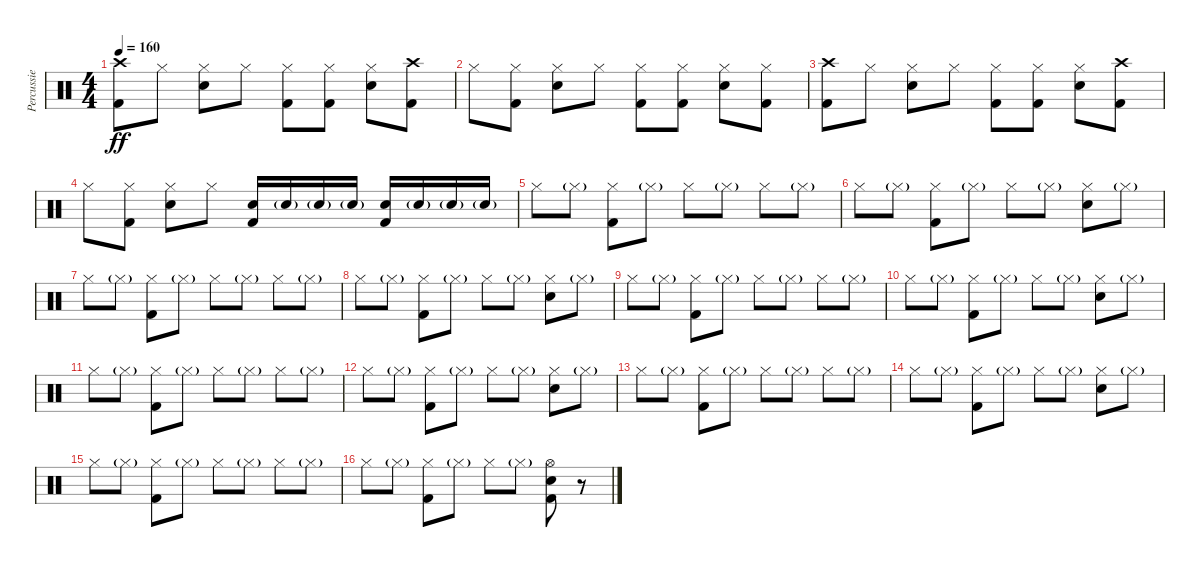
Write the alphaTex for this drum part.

\track ("Percussie" "Percussie") {instrument percussion}
\staff {score}
\articulation defaults
\ts (4 4)
\tempo 160
\clef neutral
\ks c
("Crash high (hit)" "Kick (hit) 2").8{dy ff} "Hi-Hat (closed)".8 ("Hi-Hat (closed)" "Snare (hit) 2").8 "Hi-Hat (closed)".8 ("Hi-Hat (closed)" "Kick (hit) 2").8 ("Hi-Hat (closed)" "Kick (hit) 2").8 ("Hi-Hat (closed)" "Snare (hit) 2").8 ("Crash high (hit)" "Kick (hit) 2").8 |
"Hi-Hat (closed)".8 ("Hi-Hat (closed)" "Kick (hit) 2").8 ("Hi-Hat (closed)" "Snare (hit) 2").8 "Hi-Hat (closed)".8 ("Hi-Hat (closed)" "Kick (hit) 2").8 ("Hi-Hat (closed)" "Kick (hit) 2").8 ("Hi-Hat (closed)" "Snare (hit) 2").8 ("Hi-Hat (closed)" "Kick (hit) 2").8 |
("Crash high (hit)" "Kick (hit) 2").8 "Hi-Hat (closed)".8 ("Hi-Hat (closed)" "Snare (hit) 2").8 "Hi-Hat (closed)".8 ("Hi-Hat (closed)" "Kick (hit) 2").8 ("Hi-Hat (closed)" "Kick (hit) 2").8 ("Hi-Hat (closed)" "Snare (hit) 2").8 ("Crash high (hit)" "Kick (hit) 2").8 |
"Hi-Hat (closed)".8 ("Hi-Hat (closed)" "Kick (hit) 2").8 ("Hi-Hat (closed)" "Snare (hit) 2").8 "Hi-Hat (closed)".8 ("Snare (hit) 2" "Kick (hit) 2").16 "Snare (hit) 2"{g}.16 "Snare (hit) 2"{g}.16 "Snare (hit) 2"{g}.16 ("Snare (hit) 2" "Kick (hit) 2").16 "Snare (hit) 2"{g}.16 "Snare (hit) 2"{g}.16 "Snare (hit) 2"{g}.16 |
"Hi-Hat (closed)".8 "Hi-Hat (closed)"{g}.8 ("Hi-Hat (closed)" "Kick (hit) 2").8 "Hi-Hat (closed)"{g}.8 "Hi-Hat (closed)".8 "Hi-Hat (closed)"{g}.8 "Hi-Hat (closed)".8 "Hi-Hat (closed)"{g}.8 |
"Hi-Hat (closed)".8 "Hi-Hat (closed)"{g}.8 ("Hi-Hat (closed)" "Kick (hit) 2").8 "Hi-Hat (closed)"{g}.8 "Hi-Hat (closed)".8 "Hi-Hat (closed)"{g}.8 ("Hi-Hat (closed)" "Snare (hit) 2").8 "Hi-Hat (closed)"{g}.8 |
"Hi-Hat (closed)".8 "Hi-Hat (closed)"{g}.8 ("Hi-Hat (closed)" "Kick (hit) 2").8 "Hi-Hat (closed)"{g}.8 "Hi-Hat (closed)".8 "Hi-Hat (closed)"{g}.8 "Hi-Hat (closed)".8 "Hi-Hat (closed)"{g}.8 |
"Hi-Hat (closed)".8 "Hi-Hat (closed)"{g}.8 ("Hi-Hat (closed)" "Kick (hit) 2").8 "Hi-Hat (closed)"{g}.8 "Hi-Hat (closed)".8 "Hi-Hat (closed)"{g}.8 ("Hi-Hat (closed)" "Snare (hit) 2").8 "Hi-Hat (closed)"{g}.8 |
"Hi-Hat (closed)".8 "Hi-Hat (closed)"{g}.8 ("Hi-Hat (closed)" "Kick (hit) 2").8 "Hi-Hat (closed)"{g}.8 "Hi-Hat (closed)".8 "Hi-Hat (closed)"{g}.8 "Hi-Hat (closed)".8 "Hi-Hat (closed)"{g}.8 |
"Hi-Hat (closed)".8 "Hi-Hat (closed)"{g}.8 ("Hi-Hat (closed)" "Kick (hit) 2").8 "Hi-Hat (closed)"{g}.8 "Hi-Hat (closed)".8 "Hi-Hat (closed)"{g}.8 ("Hi-Hat (closed)" "Snare (hit) 2").8 "Hi-Hat (closed)"{g}.8 |
"Hi-Hat (closed)".8 "Hi-Hat (closed)"{g}.8 ("Hi-Hat (closed)" "Kick (hit) 2").8 "Hi-Hat (closed)"{g}.8 "Hi-Hat (closed)".8 "Hi-Hat (closed)"{g}.8 "Hi-Hat (closed)".8 "Hi-Hat (closed)"{g}.8 |
"Hi-Hat (closed)".8 "Hi-Hat (closed)"{g}.8 ("Hi-Hat (closed)" "Kick (hit) 2").8 "Hi-Hat (closed)"{g}.8 "Hi-Hat (closed)".8 "Hi-Hat (closed)"{g}.8 ("Hi-Hat (closed)" "Snare (hit) 2").8 "Hi-Hat (closed)"{g}.8 |
"Hi-Hat (closed)".8 "Hi-Hat (closed)"{g}.8 ("Hi-Hat (closed)" "Kick (hit) 2").8 "Hi-Hat (closed)"{g}.8 "Hi-Hat (closed)".8 "Hi-Hat (closed)"{g}.8 "Hi-Hat (closed)".8 "Hi-Hat (closed)"{g}.8 |
"Hi-Hat (closed)".8 "Hi-Hat (closed)"{g}.8 ("Hi-Hat (closed)" "Kick (hit) 2").8 "Hi-Hat (closed)"{g}.8 "Hi-Hat (closed)".8 "Hi-Hat (closed)"{g}.8 ("Hi-Hat (closed)" "Snare (hit) 2").8 "Hi-Hat (closed)"{g}.8 |
"Hi-Hat (closed)".8 "Hi-Hat (closed)"{g}.8 ("Hi-Hat (closed)" "Kick (hit) 2").8 "Hi-Hat (closed)"{g}.8 "Hi-Hat (closed)".8 "Hi-Hat (closed)"{g}.8 "Hi-Hat (closed)".8 "Hi-Hat (closed)"{g}.8 |
"Hi-Hat (closed)".8 "Hi-Hat (closed)"{g}.8 ("Hi-Hat (closed)" "Kick (hit) 2").8 "Hi-Hat (closed)"{g}.8 "Hi-Hat (closed)".8 "Hi-Hat (closed)"{g}.8 ("Hi-Hat (open)" "Snare (hit) 2" "Kick (hit) 2").8 r.8
